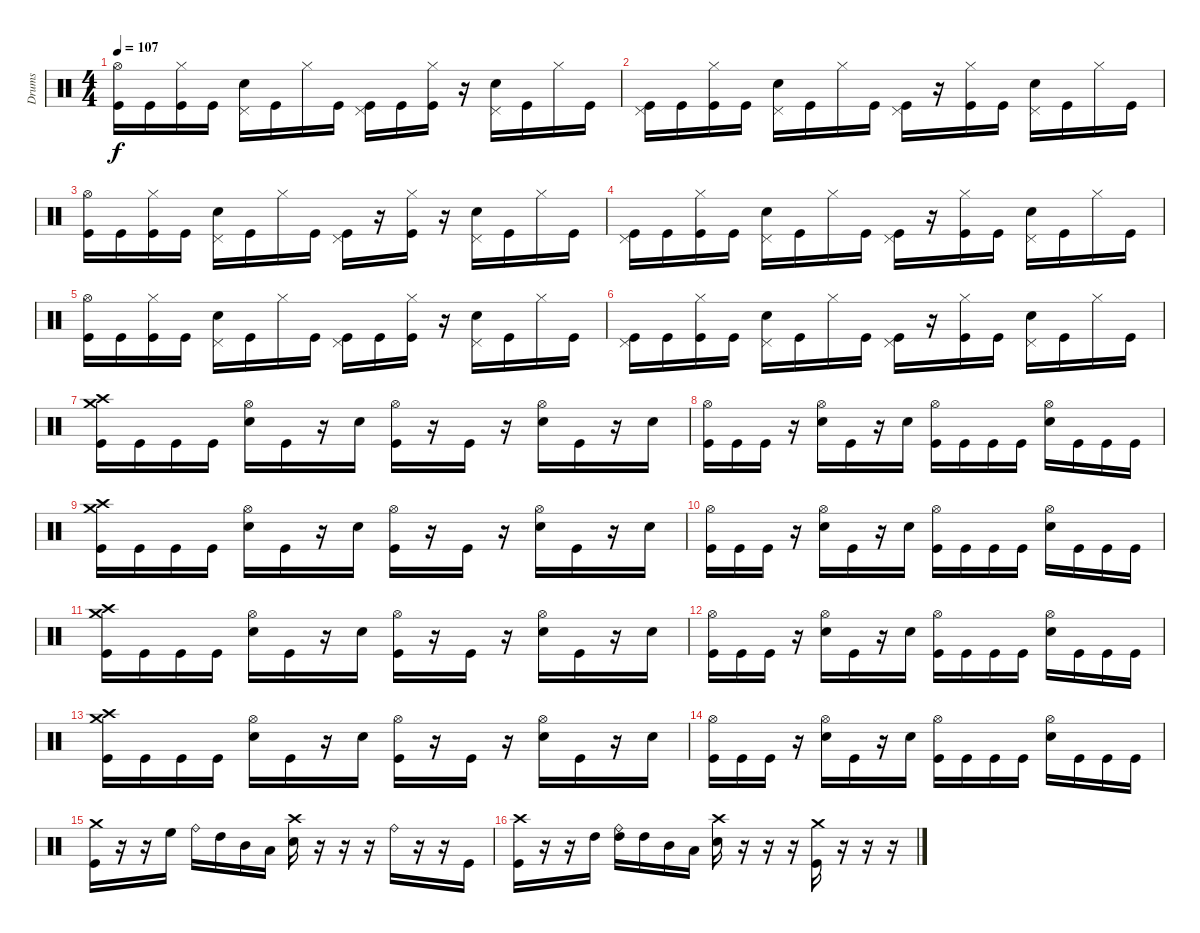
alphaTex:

\track ("Drums" "Drums") {instrument percussion}
\staff {score}
\articulation defaults
\ts (4 4)
\tempo 107
\clef neutral
\ks c
("Hi-Hat (open)" "Kick (hit)").16{dy f} "Kick (hit)".16 ("Hi-Hat (closed)" "Kick (hit)").16 "Kick (hit)".16 ("Pedal Hi-Hat (hit)" "Electric Snare (hit)").16 "Kick (hit)".16 "Hi-Hat (closed)".16 "Kick (hit)".16 ("Pedal Hi-Hat (hit)" "Kick (hit)").16 "Kick (hit)".16 ("Hi-Hat (closed)" "Kick (hit)").16 r.16 ("Pedal Hi-Hat (hit)" "Electric Snare (hit)").16 "Kick (hit)".16 "Hi-Hat (closed)".16 "Kick (hit)".16 |
("Pedal Hi-Hat (hit)" "Kick (hit)").16 "Kick (hit)".16 ("Hi-Hat (closed)" "Kick (hit)").16 "Kick (hit)".16 ("Pedal Hi-Hat (hit)" "Electric Snare (hit)").16 "Kick (hit)".16 "Hi-Hat (closed)".16 "Kick (hit)".16 ("Pedal Hi-Hat (hit)" "Kick (hit)").16 r.16 ("Hi-Hat (closed)" "Kick (hit)").16 "Kick (hit)".16 ("Pedal Hi-Hat (hit)" "Electric Snare (hit)").16 "Kick (hit)".16 "Hi-Hat (closed)".16 "Kick (hit)".16 |
("Hi-Hat (open)" "Kick (hit)").16 "Kick (hit)".16 ("Hi-Hat (closed)" "Kick (hit)").16 "Kick (hit)".16 ("Pedal Hi-Hat (hit)" "Electric Snare (hit)").16 "Kick (hit)".16 "Hi-Hat (closed)".16 "Kick (hit)".16 ("Pedal Hi-Hat (hit)" "Kick (hit)").16 r.16 ("Hi-Hat (closed)" "Kick (hit)").16 r.16 ("Pedal Hi-Hat (hit)" "Electric Snare (hit)").16 "Kick (hit)".16 "Hi-Hat (closed)".16 "Kick (hit)".16 |
("Pedal Hi-Hat (hit)" "Kick (hit)").16 "Kick (hit)".16 ("Hi-Hat (closed)" "Kick (hit)").16 "Kick (hit)".16 ("Pedal Hi-Hat (hit)" "Electric Snare (hit)").16 "Kick (hit)".16 "Hi-Hat (closed)".16 "Kick (hit)".16 ("Pedal Hi-Hat (hit)" "Kick (hit)").16 r.16 ("Hi-Hat (closed)" "Kick (hit)").16 "Kick (hit)".16 ("Pedal Hi-Hat (hit)" "Electric Snare (hit)").16 "Kick (hit)".16 "Hi-Hat (closed)".16 "Kick (hit)".16 |
("Hi-Hat (open)" "Kick (hit)").16 "Kick (hit)".16 ("Hi-Hat (closed)" "Kick (hit)").16 "Kick (hit)".16 ("Pedal Hi-Hat (hit)" "Electric Snare (hit)").16 "Kick (hit)".16 "Hi-Hat (closed)".16 "Kick (hit)".16 ("Pedal Hi-Hat (hit)" "Kick (hit)").16 "Kick (hit)".16 ("Hi-Hat (closed)" "Kick (hit)").16 r.16 ("Pedal Hi-Hat (hit)" "Electric Snare (hit)").16 "Kick (hit)".16 "Hi-Hat (closed)".16 "Kick (hit)".16 |
("Pedal Hi-Hat (hit)" "Kick (hit)").16 "Kick (hit)".16 ("Hi-Hat (closed)" "Kick (hit)").16 "Kick (hit)".16 ("Pedal Hi-Hat (hit)" "Electric Snare (hit)").16 "Kick (hit)".16 "Hi-Hat (closed)".16 "Kick (hit)".16 ("Pedal Hi-Hat (hit)" "Kick (hit)").16 r.16 ("Hi-Hat (closed)" "Kick (hit)").16 "Kick (hit)".16 ("Pedal Hi-Hat (hit)" "Electric Snare (hit)").16 "Kick (hit)".16 "Hi-Hat (closed)".16 "Kick (hit)".16 |
("Crash high (hit)" "Kick (hit)" "Crash medium (hit)").16 "Kick (hit)".16 "Kick (hit)".16 "Kick (hit)".16 ("Hi-Hat (open)" "Electric Snare (hit)").16 "Kick (hit)".16 r.16 "Electric Snare (hit)".16 ("Hi-Hat (open)" "Kick (hit)").16 r.16 "Kick (hit)".16 r.16 ("Hi-Hat (open)" "Electric Snare (hit)").16 "Kick (hit)".16 r.16 "Electric Snare (hit)".16 |
("Hi-Hat (open)" "Kick (hit)").16 "Kick (hit)".16 "Kick (hit)".16 r.16 ("Hi-Hat (open)" "Electric Snare (hit)").16 "Kick (hit)".16 r.16 "Electric Snare (hit)".16 ("Hi-Hat (open)" "Kick (hit)").16 "Kick (hit)".16 "Kick (hit)".16 "Kick (hit)".16 ("Hi-Hat (open)" "Electric Snare (hit)").16 "Kick (hit)".16 "Kick (hit)".16 "Kick (hit)".16 |
("Crash high (hit)" "Kick (hit)" "Crash medium (hit)").16 "Kick (hit)".16 "Kick (hit)".16 "Kick (hit)".16 ("Hi-Hat (open)" "Electric Snare (hit)").16 "Kick (hit)".16 r.16 "Electric Snare (hit)".16 ("Hi-Hat (open)" "Kick (hit)").16 r.16 "Kick (hit)".16 r.16 ("Hi-Hat (open)" "Electric Snare (hit)").16 "Kick (hit)".16 r.16 "Electric Snare (hit)".16 |
("Hi-Hat (open)" "Kick (hit)").16 "Kick (hit)".16 "Kick (hit)".16 r.16 ("Hi-Hat (open)" "Electric Snare (hit)").16 "Kick (hit)".16 r.16 "Electric Snare (hit)".16 ("Hi-Hat (open)" "Kick (hit)").16 "Kick (hit)".16 "Kick (hit)".16 "Kick (hit)".16 ("Hi-Hat (open)" "Electric Snare (hit)").16 "Kick (hit)".16 "Kick (hit)".16 "Kick (hit)".16 |
("Crash high (hit)" "Kick (hit)" "Crash medium (hit)").16 "Kick (hit)".16 "Kick (hit)".16 "Kick (hit)".16 ("Hi-Hat (open)" "Electric Snare (hit)").16 "Kick (hit)".16 r.16 "Electric Snare (hit)".16 ("Hi-Hat (open)" "Kick (hit)").16 r.16 "Kick (hit)".16 r.16 ("Hi-Hat (open)" "Electric Snare (hit)").16 "Kick (hit)".16 r.16 "Electric Snare (hit)".16 |
("Hi-Hat (open)" "Kick (hit)").16 "Kick (hit)".16 "Kick (hit)".16 r.16 ("Hi-Hat (open)" "Electric Snare (hit)").16 "Kick (hit)".16 r.16 "Electric Snare (hit)".16 ("Hi-Hat (open)" "Kick (hit)").16 "Kick (hit)".16 "Kick (hit)".16 "Kick (hit)".16 ("Hi-Hat (open)" "Electric Snare (hit)").16 "Kick (hit)".16 "Kick (hit)".16 "Kick (hit)".16 |
("Crash high (hit)" "Kick (hit)" "Crash medium (hit)").16 "Kick (hit)".16 "Kick (hit)".16 "Kick (hit)".16 ("Hi-Hat (open)" "Electric Snare (hit)").16 "Kick (hit)".16 r.16 "Electric Snare (hit)".16 ("Hi-Hat (open)" "Kick (hit)").16 r.16 "Kick (hit)".16 r.16 ("Hi-Hat (open)" "Electric Snare (hit)").16 "Kick (hit)".16 r.16 "Electric Snare (hit)".16 |
("Hi-Hat (open)" "Kick (hit)").16 "Kick (hit)".16 "Kick (hit)".16 r.16 ("Hi-Hat (open)" "Electric Snare (hit)").16 "Kick (hit)".16 r.16 "Electric Snare (hit)".16 ("Hi-Hat (open)" "Kick (hit)").16 "Kick (hit)".16 "Kick (hit)".16 "Kick (hit)".16 ("Hi-Hat (open)" "Electric Snare (hit)").16 "Kick (hit)".16 "Kick (hit)".16 "Kick (hit)".16 |
("Crash medium (hit)" "Kick (hit)").16 r.16 r.16 "High Floor Tom (hit)".16 "Ride (bell)".16 "High Tom (hit)".16 "Mid Tom (hit)".16 "Low Tom (hit)".16 ("Crash high (hit)" "Electric Snare (hit)").16 r.16 r.16 r.16 "Ride (bell)".16 r.16 r.16 "Kick (hit)".16 |
("Crash high (hit)" "Kick (hit)").16 r.16 r.16 "High Tom (hit)".16 ("Ride (bell)" "High Tom (hit)").16 "High Tom (hit)".16 "Mid Tom (hit)".16 "Low Tom (hit)".16 ("Crash high (hit)" "Electric Snare (hit)").16 r.16 r.16 r.16 ("Crash medium (hit)" "Kick (hit)").16 r.16 r.16 r.16
